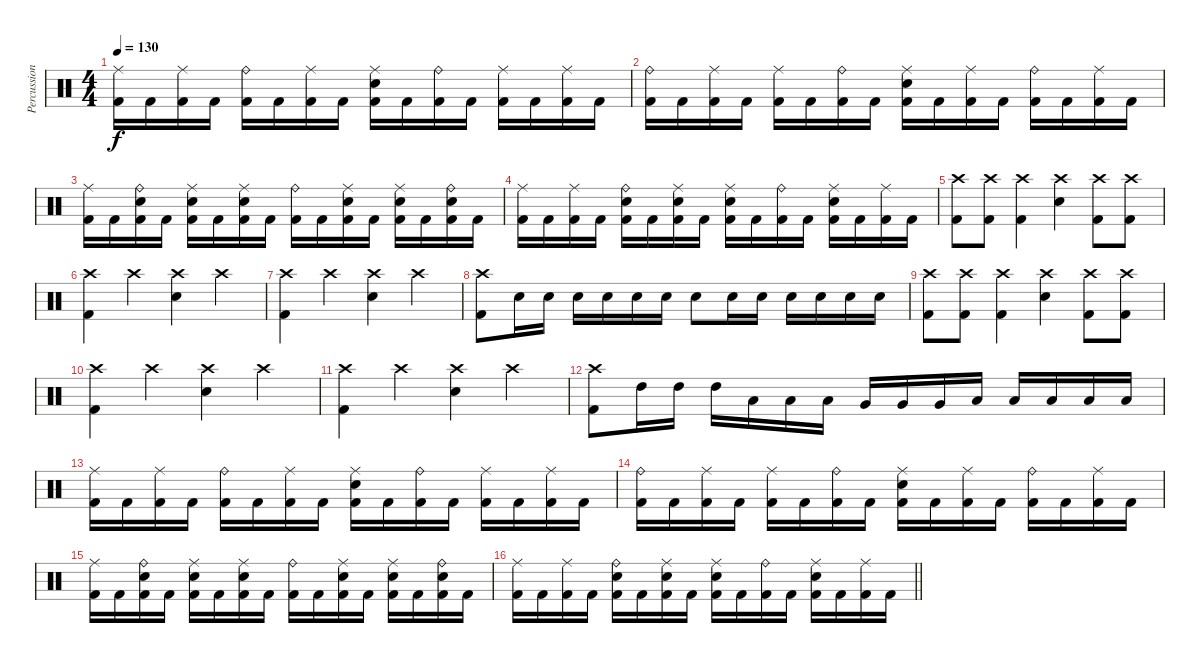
\track ("Percussion" "Percussion") {instrument percussion}
\staff {score}
\articulation defaults
\ts (4 4)
\tempo 130
\clef neutral
\ks c
("Ride (middle)" "Kick (hit) 2").16{dy f} "Kick (hit) 2".16 ("Ride (middle)" "Kick (hit) 2").16 "Kick (hit) 2".16 ("Ride (bell)" "Kick (hit) 2").16 "Kick (hit) 2".16 ("Ride (middle)" "Kick (hit) 2").16 "Kick (hit) 2".16 ("Ride (middle)" "Electric Snare (hit)" "Kick (hit) 2").16 "Kick (hit) 2".16 ("Ride (bell)" "Kick (hit) 2").16 "Kick (hit) 2".16 ("Ride (middle)" "Kick (hit) 2").16 "Kick (hit) 2".16 ("Ride (middle)" "Kick (hit) 2").16 "Kick (hit) 2".16 |
("Ride (bell)" "Kick (hit) 2").16 "Kick (hit) 2".16 ("Ride (middle)" "Kick (hit) 2").16 "Kick (hit) 2".16 ("Ride (middle)" "Kick (hit) 2").16 "Kick (hit) 2".16 ("Ride (bell)" "Kick (hit) 2").16 "Kick (hit) 2".16 ("Ride (middle)" "Electric Snare (hit)" "Kick (hit) 2").16 "Kick (hit) 2".16 ("Ride (middle)" "Kick (hit) 2").16 "Kick (hit) 2".16 ("Ride (bell)" "Kick (hit) 2").16 "Kick (hit) 2".16 ("Ride (middle)" "Kick (hit) 2").16 "Kick (hit) 2".16 |
("Ride (middle)" "Kick (hit) 2").16 "Kick (hit) 2".16 ("Ride (bell)" "Electric Snare (hit)" "Kick (hit) 2").16 "Kick (hit) 2".16 ("Ride (middle)" "Electric Snare (hit)" "Kick (hit) 2").16 "Kick (hit) 2".16 ("Ride (middle)" "Electric Snare (hit)" "Kick (hit) 2").16 "Kick (hit) 2".16 ("Ride (bell)" "Kick (hit) 2").16 "Kick (hit) 2".16 ("Ride (middle)" "Electric Snare (hit)" "Kick (hit) 2").16 "Kick (hit) 2".16 ("Ride (middle)" "Electric Snare (hit)" "Kick (hit) 2").16 "Kick (hit) 2".16 ("Ride (bell)" "Electric Snare (hit)" "Kick (hit) 2").16 "Kick (hit) 2".16 |
("Ride (middle)" "Kick (hit) 2").16 "Kick (hit) 2".16 ("Ride (middle)" "Kick (hit) 2").16 "Kick (hit) 2".16 ("Ride (bell)" "Electric Snare (hit)" "Kick (hit) 2").16 "Kick (hit) 2".16 ("Ride (middle)" "Electric Snare (hit)" "Kick (hit) 2").16 "Kick (hit) 2".16 ("Ride (middle)" "Electric Snare (hit)" "Kick (hit) 2").16 "Kick (hit) 2".16 ("Ride (bell)" "Kick (hit) 2").16 "Kick (hit) 2".16 ("Ride (middle)" "Electric Snare (hit)" "Kick (hit) 2").16 "Kick (hit) 2".16 ("Ride (middle)" "Kick (hit) 2").16 "Kick (hit) 2".16 |
("Crash high (hit)" "Kick (hit) 2").8 ("Crash high (hit)" "Kick (hit) 2").8 ("Crash high (hit)" "Kick (hit) 2").4 ("Crash high (hit)" "Electric Snare (hit)").4 ("Crash high (hit)" "Kick (hit) 2").8 ("Crash high (hit)" "Kick (hit) 2").8 |
("Crash high (hit)" "Kick (hit) 2").4 "Crash high (hit)".4 ("Crash high (hit)" "Electric Snare (hit)").4 "Crash high (hit)".4 |
("Crash high (hit)" "Kick (hit) 2").4 "Crash high (hit)".4 ("Crash high (hit)" "Electric Snare (hit)").4 "Crash high (hit)".4 |
("Crash high (hit)" "Kick (hit) 2").8 "Electric Snare (hit)".16 "Electric Snare (hit)".16 "Electric Snare (hit)".16 "Electric Snare (hit)".16 "Electric Snare (hit)".16 "Electric Snare (hit)".16 "Electric Snare (hit)".8 "Electric Snare (hit)".16 "Electric Snare (hit)".16 "Electric Snare (hit)".16 "Electric Snare (hit)".16 "Electric Snare (hit)".16 "Electric Snare (hit)".16 |
("Crash high (hit)" "Kick (hit) 2").8 ("Crash high (hit)" "Kick (hit) 2").8 ("Crash high (hit)" "Kick (hit) 2").4 ("Crash high (hit)" "Electric Snare (hit)").4 ("Crash high (hit)" "Kick (hit) 2").8 ("Crash high (hit)" "Kick (hit) 2").8 |
("Crash high (hit)" "Kick (hit) 2").4 "Crash high (hit)".4 ("Crash high (hit)" "Electric Snare (hit)").4 "Crash high (hit)".4 |
("Crash high (hit)" "Kick (hit) 2").4 "Crash high (hit)".4 ("Crash high (hit)" "Electric Snare (hit)").4 "Crash high (hit)".4 |
("Crash high (hit)" "Kick (hit) 2").8 "High Tom (hit)".16 "High Tom (hit)".16 "High Tom (hit)".16 "Low Tom (hit)".16 "Low Tom (hit)".16 "Low Tom (hit)".16 "Very Low Tom (hit)".16 "Very Low Tom (hit)".16 "Very Low Tom (hit)".16 "Low Floor Tom (hit)".16 "Low Floor Tom (hit)".16 "Low Floor Tom (hit)".16 "Low Floor Tom (hit)".16 "Low Floor Tom (hit)".16 |
("Ride (middle)" "Kick (hit) 2").16 "Kick (hit) 2".16 ("Ride (middle)" "Kick (hit) 2").16 "Kick (hit) 2".16 ("Ride (bell)" "Kick (hit) 2").16 "Kick (hit) 2".16 ("Ride (middle)" "Kick (hit) 2").16 "Kick (hit) 2".16 ("Ride (middle)" "Electric Snare (hit)" "Kick (hit) 2").16 "Kick (hit) 2".16 ("Ride (bell)" "Kick (hit) 2").16 "Kick (hit) 2".16 ("Ride (middle)" "Kick (hit) 2").16 "Kick (hit) 2".16 ("Ride (middle)" "Kick (hit) 2").16 "Kick (hit) 2".16 |
("Ride (bell)" "Kick (hit) 2").16 "Kick (hit) 2".16 ("Ride (middle)" "Kick (hit) 2").16 "Kick (hit) 2".16 ("Ride (middle)" "Kick (hit) 2").16 "Kick (hit) 2".16 ("Ride (bell)" "Kick (hit) 2").16 "Kick (hit) 2".16 ("Ride (middle)" "Electric Snare (hit)" "Kick (hit) 2").16 "Kick (hit) 2".16 ("Ride (middle)" "Kick (hit) 2").16 "Kick (hit) 2".16 ("Ride (bell)" "Kick (hit) 2").16 "Kick (hit) 2".16 ("Ride (middle)" "Kick (hit) 2").16 "Kick (hit) 2".16 |
("Ride (middle)" "Kick (hit) 2").16 "Kick (hit) 2".16 ("Ride (bell)" "Electric Snare (hit)" "Kick (hit) 2").16 "Kick (hit) 2".16 ("Ride (middle)" "Electric Snare (hit)" "Kick (hit) 2").16 "Kick (hit) 2".16 ("Ride (middle)" "Electric Snare (hit)" "Kick (hit) 2").16 "Kick (hit) 2".16 ("Ride (bell)" "Kick (hit) 2").16 "Kick (hit) 2".16 ("Ride (middle)" "Electric Snare (hit)" "Kick (hit) 2").16 "Kick (hit) 2".16 ("Ride (middle)" "Electric Snare (hit)" "Kick (hit) 2").16 "Kick (hit) 2".16 ("Ride (bell)" "Electric Snare (hit)" "Kick (hit) 2").16 "Kick (hit) 2".16 |
\barLineRight lightlight
("Ride (middle)" "Kick (hit) 2").16 "Kick (hit) 2".16 ("Ride (middle)" "Kick (hit) 2").16 "Kick (hit) 2".16 ("Ride (bell)" "Electric Snare (hit)" "Kick (hit) 2").16 "Kick (hit) 2".16 ("Ride (middle)" "Electric Snare (hit)" "Kick (hit) 2").16 "Kick (hit) 2".16 ("Ride (middle)" "Electric Snare (hit)" "Kick (hit) 2").16 "Kick (hit) 2".16 ("Ride (bell)" "Kick (hit) 2").16 "Kick (hit) 2".16 ("Ride (middle)" "Electric Snare (hit)" "Kick (hit) 2").16 "Kick (hit) 2".16 ("Ride (middle)" "Kick (hit) 2").16 "Kick (hit) 2".16
